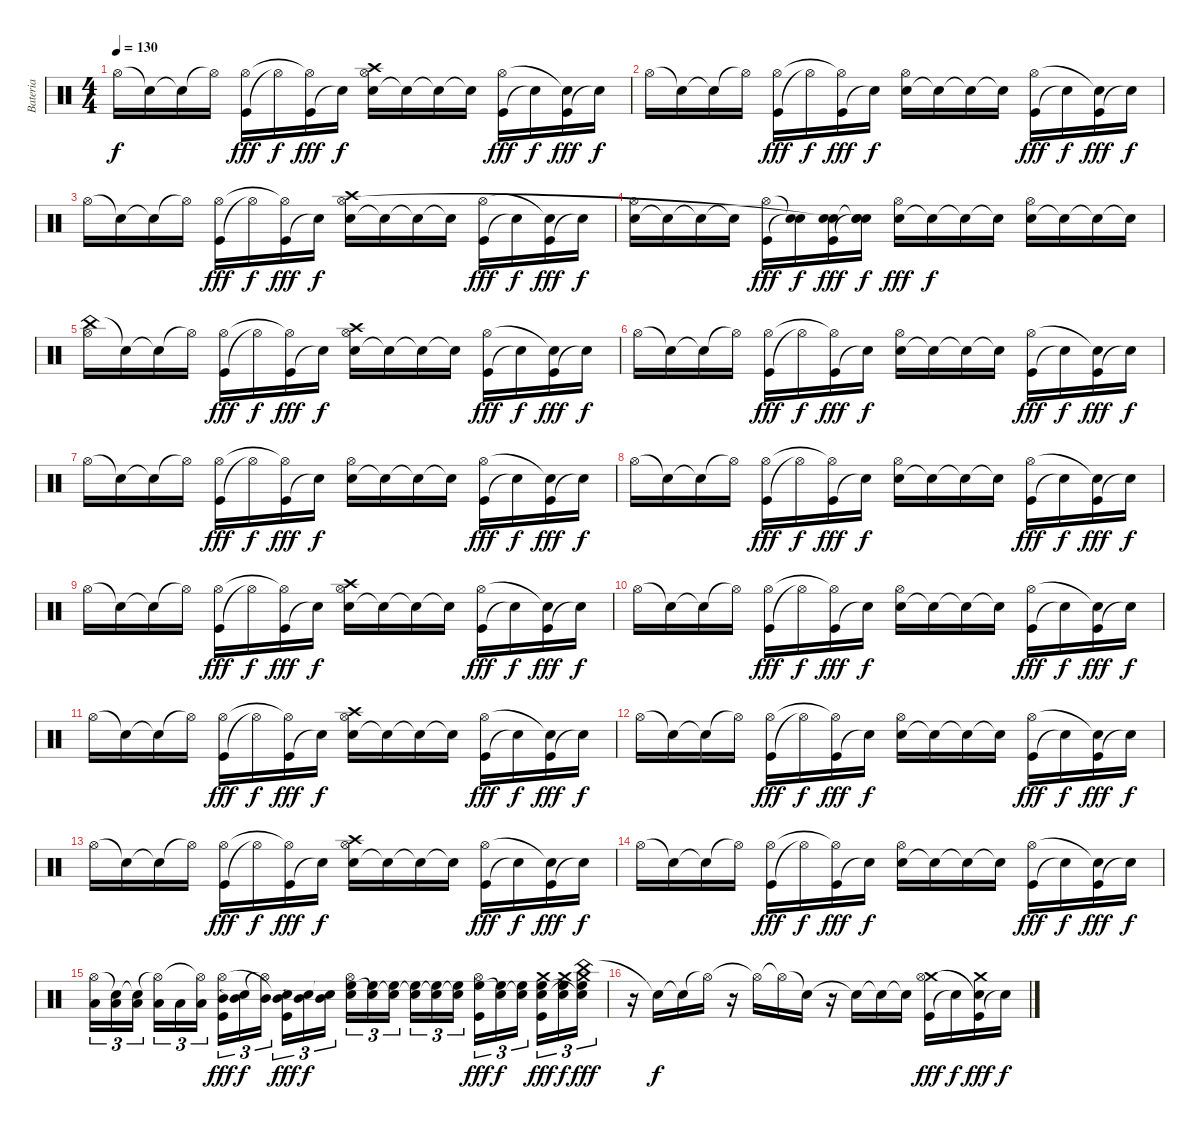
\track ("Bateria" "Bateria") {instrument percussion}
\staff {score}
\articulation defaults
\ts (4 4)
\tempo 130
\clef neutral
\ks c "Hi-Hat (open)".16{dy f} "Snare (hit)"{t}.16 "Snare (hit)"{t}.16 "Hi-Hat (open)"{t}.16
("Kick (hit)" "Hi-Hat (open)").16{dy fff} "Hi-Hat (open)"{t}.16{dy f} ("Kick (hit)" "Hi-Hat (open)"{t}).16{dy fff} "Snare (hit)"{t}.16{dy f} ("Electric Snare (hit)" "Crash high (hit)" "Hi-Hat (open)").16 "Snare (hit)"{t}.16 "Snare (hit)"{t}.16 "Snare (hit)"{t}.16 ("Kick (hit)" "Hi-Hat (open)").16{dy fff} "Snare (hit)"{t}.16{dy f} ("Kick (hit)" "Snare (hit)"{t}).16{dy fff} "Snare (hit)"{t}.16{dy f} |
"Hi-Hat (open)".16 "Snare (hit)"{t}.16 "Snare (hit)"{t}.16 "Hi-Hat (open)"{t}.16 ("Kick (hit)" "Hi-Hat (open)").16{dy fff} "Hi-Hat (open)"{t}.16{dy f} ("Kick (hit)" "Hi-Hat (open)"{t}).16{dy fff} "Snare (hit)"{t}.16{dy f} ("Electric Snare (hit)" "Hi-Hat (open)").16 "Snare (hit)"{t}.16 "Snare (hit)"{t}.16 "Snare (hit)"{t}.16 ("Kick (hit)" "Hi-Hat (open)").16{dy fff} "Snare (hit)"{t}.16{dy f} ("Kick (hit)" "Snare (hit)"{t}).16{dy fff} "Snare (hit)"{t}.16{dy f} |
"Hi-Hat (open)".16 "Snare (hit)"{t}.16 "Snare (hit)"{t}.16 "Hi-Hat (open)"{t}.16 ("Kick (hit)" "Hi-Hat (open)").16{dy fff} "Hi-Hat (open)"{t}.16{dy f} ("Kick (hit)" "Hi-Hat (open)"{t}).16{dy fff} "Snare (hit)"{t}.16{dy f} ("Electric Snare (hit)" "Crash high (hit)" "Hi-Hat (open)").16 "Snare (hit)"{t}.16 "Snare (hit)"{t}.16 "Snare (hit)"{t}.16 ("Kick (hit)" "Hi-Hat (open)").16{dy fff} "Snare (hit)"{t}.16{dy f} ("Kick (hit)" "Snare (hit)"{t}).16{dy fff} "Snare (hit)"{t}.16{dy f} |
("Electric Snare (hit)" "Hi-Hat (open)").16 "Snare (hit)"{t}.16 "Snare (hit)"{t}.16 "Snare (hit)"{t}.16 ("Kick (hit)" "Hi-Hat (open)").16{dy fff} ("Snare (hit)"{t} "Snare (hit)"{t}).16{dy f} ("Kick (hit)" "Electric Snare (hit)" "Snare (hit)"{t}).16{dy fff} ("Snare (hit)"{t} "Electric Snare (hit)" "Snare (hit)"{t}).16{dy f} ("Electric Snare (hit)" "Hi-Hat (open)").16{dy fff} "Snare (hit)"{t}.16{dy f} "Snare (hit)"{t}.16 "Snare (hit)"{t}.16 ("Electric Snare (hit)" "Hi-Hat (open)").16 "Snare (hit)"{t}.16 "Snare (hit)"{t}.16 "Snare (hit)"{t}.16 |
("China (hit)" "Hi-Hat (open)").16 "Snare (hit)"{t}.16 "Snare (hit)"{t}.16 "Hi-Hat (open)"{t}.16 ("Kick (hit)" "Hi-Hat (open)").16{dy fff} "Hi-Hat (open)"{t}.16{dy f} ("Kick (hit)" "Hi-Hat (open)"{t}).16{dy fff} "Snare (hit)"{t}.16{dy f} ("Electric Snare (hit)" "Crash high (hit)" "Hi-Hat (open)").16 "Snare (hit)"{t}.16 "Snare (hit)"{t}.16 "Snare (hit)"{t}.16 ("Kick (hit)" "Hi-Hat (open)").16{dy fff} "Snare (hit)"{t}.16{dy f} ("Kick (hit)" "Snare (hit)"{t}).16{dy fff} "Snare (hit)"{t}.16{dy f} |
"Hi-Hat (open)".16 "Snare (hit)"{t}.16 "Snare (hit)"{t}.16 "Hi-Hat (open)"{t}.16 ("Kick (hit)" "Hi-Hat (open)").16{dy fff} "Hi-Hat (open)"{t}.16{dy f} ("Kick (hit)" "Hi-Hat (open)"{t}).16{dy fff} "Snare (hit)"{t}.16{dy f} ("Electric Snare (hit)" "Hi-Hat (open)").16 "Snare (hit)"{t}.16 "Snare (hit)"{t}.16 "Snare (hit)"{t}.16 ("Kick (hit)" "Hi-Hat (open)").16{dy fff} "Snare (hit)"{t}.16{dy f} ("Kick (hit)" "Snare (hit)"{t}).16{dy fff} "Snare (hit)"{t}.16{dy f} |
"Hi-Hat (open)".16 "Snare (hit)"{t}.16 "Snare (hit)"{t}.16 "Hi-Hat (open)"{t}.16 ("Kick (hit)" "Hi-Hat (open)").16{dy fff} "Hi-Hat (open)"{t}.16{dy f} ("Kick (hit)" "Hi-Hat (open)"{t}).16{dy fff} "Snare (hit)"{t}.16{dy f} ("Electric Snare (hit)" "Hi-Hat (open)").16 "Snare (hit)"{t}.16 "Snare (hit)"{t}.16 "Snare (hit)"{t}.16 ("Kick (hit)" "Hi-Hat (open)").16{dy fff} "Snare (hit)"{t}.16{dy f} ("Kick (hit)" "Snare (hit)"{t}).16{dy fff} "Snare (hit)"{t}.16{dy f} |
"Hi-Hat (open)".16 "Snare (hit)"{t}.16 "Snare (hit)"{t}.16 "Hi-Hat (open)"{t}.16 ("Kick (hit)" "Hi-Hat (open)").16{dy fff} "Hi-Hat (open)"{t}.16{dy f} ("Kick (hit)" "Hi-Hat (open)"{t}).16{dy fff} "Snare (hit)"{t}.16{dy f} ("Electric Snare (hit)" "Hi-Hat (open)").16 "Snare (hit)"{t}.16 "Snare (hit)"{t}.16 "Snare (hit)"{t}.16 ("Kick (hit)" "Hi-Hat (open)").16{dy fff} "Snare (hit)"{t}.16{dy f} ("Kick (hit)" "Snare (hit)"{t}).16{dy fff} "Snare (hit)"{t}.16{dy f} |
"Hi-Hat (open)".16 "Snare (hit)"{t}.16 "Snare (hit)"{t}.16 "Hi-Hat (open)"{t}.16 ("Kick (hit)" "Hi-Hat (open)").16{dy fff} "Hi-Hat (open)"{t}.16{dy f} ("Kick (hit)" "Hi-Hat (open)"{t}).16{dy fff} "Snare (hit)"{t}.16{dy f} ("Electric Snare (hit)" "Crash high (hit)" "Hi-Hat (open)").16 "Snare (hit)"{t}.16 "Snare (hit)"{t}.16 "Snare (hit)"{t}.16 ("Kick (hit)" "Hi-Hat (open)").16{dy fff} "Snare (hit)"{t}.16{dy f} ("Kick (hit)" "Snare (hit)"{t}).16{dy fff} "Snare (hit)"{t}.16{dy f} |
"Hi-Hat (open)".16 "Snare (hit)"{t}.16 "Snare (hit)"{t}.16 "Hi-Hat (open)"{t}.16 ("Kick (hit)" "Hi-Hat (open)").16{dy fff} "Hi-Hat (open)"{t}.16{dy f} ("Kick (hit)" "Hi-Hat (open)"{t}).16{dy fff} "Snare (hit)"{t}.16{dy f} ("Electric Snare (hit)" "Hi-Hat (open)").16 "Snare (hit)"{t}.16 "Snare (hit)"{t}.16 "Snare (hit)"{t}.16 ("Kick (hit)" "Hi-Hat (open)").16{dy fff} "Snare (hit)"{t}.16{dy f} ("Kick (hit)" "Snare (hit)"{t}).16{dy fff} "Snare (hit)"{t}.16{dy f} |
"Hi-Hat (open)".16 "Snare (hit)"{t}.16 "Snare (hit)"{t}.16 "Hi-Hat (open)"{t}.16 ("Kick (hit)" "Hi-Hat (open)").16{dy fff} "Hi-Hat (open)"{t}.16{dy f} ("Kick (hit)" "Hi-Hat (open)"{t}).16{dy fff} "Snare (hit)"{t}.16{dy f} ("Electric Snare (hit)" "Crash high (hit)" "Hi-Hat (open)").16 "Snare (hit)"{t}.16 "Snare (hit)"{t}.16 "Snare (hit)"{t}.16 ("Kick (hit)" "Hi-Hat (open)").16{dy fff} "Snare (hit)"{t}.16{dy f} ("Kick (hit)" "Snare (hit)"{t}).16{dy fff} "Snare (hit)"{t}.16{dy f} |
"Hi-Hat (open)".16 "Snare (hit)"{t}.16 "Snare (hit)"{t}.16 "Hi-Hat (open)"{t}.16 ("Kick (hit)" "Hi-Hat (open)").16{dy fff} "Hi-Hat (open)"{t}.16{dy f} ("Kick (hit)" "Hi-Hat (open)"{t}).16{dy fff} "Snare (hit)"{t}.16{dy f} ("Electric Snare (hit)" "Hi-Hat (open)").16 "Snare (hit)"{t}.16 "Snare (hit)"{t}.16 "Snare (hit)"{t}.16 ("Kick (hit)" "Hi-Hat (open)").16{dy fff} "Snare (hit)"{t}.16{dy f} ("Kick (hit)" "Snare (hit)"{t}).16{dy fff} "Snare (hit)"{t}.16{dy f} |
"Hi-Hat (open)".16 "Snare (hit)"{t}.16 "Snare (hit)"{t}.16 "Hi-Hat (open)"{t}.16 ("Kick (hit)" "Hi-Hat (open)").16{dy fff} "Hi-Hat (open)"{t}.16{dy f} ("Kick (hit)" "Hi-Hat (open)"{t}).16{dy fff} "Snare (hit)"{t}.16{dy f} ("Electric Snare (hit)" "Crash high (hit)" "Hi-Hat (open)").16 "Snare (hit)"{t}.16 "Snare (hit)"{t}.16 "Snare (hit)"{t}.16 ("Kick (hit)" "Hi-Hat (open)").16{dy fff} "Snare (hit)"{t}.16{dy f} ("Kick (hit)" "Snare (hit)"{t}).16{dy fff} "Snare (hit)"{t}.16{dy f} |
"Hi-Hat (open)".16 "Snare (hit)"{t}.16 "Snare (hit)"{t}.16 "Hi-Hat (open)"{t}.16 ("Kick (hit)" "Hi-Hat (open)").16{dy fff} "Hi-Hat (open)"{t}.16{dy f} ("Kick (hit)" "Hi-Hat (open)"{t}).16{dy fff} "Snare (hit)"{t}.16{dy f} ("Electric Snare (hit)" "Hi-Hat (open)").16 "Snare (hit)"{t}.16 "Snare (hit)"{t}.16 "Snare (hit)"{t}.16 ("Kick (hit)" "Hi-Hat (open)").16{dy fff} "Snare (hit)"{t}.16{dy f} ("Kick (hit)" "Snare (hit)"{t}).16{dy fff} "Snare (hit)"{t}.16{dy f} |
("Low Tom (hit)" "Hi-Hat (open)").16{tu (3 2)} ("Low Tom (hit)" "Snare (hit)"{t}).16{tu (3 2)} ("Low Tom (hit)" "Snare (hit)"{t}).16{tu (3 2)} ("Low Tom (hit)" "Hi-Hat (open)"{t}).16{tu (3 2)} "Low Tom (hit)".16{tu (3 2)} ("Low Tom (hit)" "Hi-Hat (open)"{t}).16{tu (3 2)} ("Kick (hit)" "Mid Tom (hit)" "Hi-Hat (open)").16{tu (3 2) dy fff} ("Mid Tom (hit)" "Snare (hit)"{t}).16{tu (3 2) dy f} ("Mid Tom (hit)" "Hi-Hat (open)"{t}).16{tu (3 2)} ("Kick (hit)" "Mid Tom (hit)" "Snare (hit)"{t}).16{tu (3 2) dy fff} ("Mid Tom (hit)" "Snare (hit)"{t}).16{tu (3 2) dy f} ("Mid Tom (hit)" "Snare (hit)"{t}).16{tu (3 2)} ("Electric Snare (hit)" "High Floor Tom (hit)" "Hi-Hat (open)").16{tu (3 2)} ("High Floor Tom (hit)" "Snare (hit)"{t}).16{tu (3 2)} ("High Floor Tom (hit)" "Snare (hit)"{t}).16{tu (3 2)} ("High Floor Tom (hit)" "Snare (hit)"{t}).16{tu (3 2)} ("High Floor Tom (hit)" "Snare (hit)"{t}).16{tu (3 2)} ("High Floor Tom (hit)" "Snare (hit)"{t}).16{tu (3 2)} ("Kick (hit)" "High Floor Tom (hit)" "Hi-Hat (open)").16{tu (3 2) dy fff} ("High Floor Tom (hit)" "Snare (hit)"{t}).16{tu (3 2) dy f} ("High Floor Tom (hit)" "Snare (hit)"{t}).16{tu (3 2)} ("Kick (hit)" "Crash medium (hit)" "High Floor Tom (hit)" "Snare (hit)").16{tu (3 2) dy fff} ("Crash medium (hit)" "High Floor Tom (hit)" "Snare (hit)"{t}).16{tu (3 2) dy f} ("China (hit)" "Crash medium (hit)" "High Floor Tom (hit)" "Snare (hit)"{t}).16{tu (3 2) dy fff} |
r.16 "Snare (hit)"{t}.16{dy f} "Snare (hit)"{t}.16 "Hi-Hat (open)"{t}.16 r.16 "Hi-Hat (open)"{t}.16 "Hi-Hat (open)"{t}.16 "Snare (hit)"{t}.16 r.16 "Snare (hit)"{t}.16 "Snare (hit)"{t}.16 "Snare (hit)"{t}.16 ("Kick (hit)" "Crash medium (hit)" "Hi-Hat (open)").16{dy fff} "Snare (hit)"{t}.16{dy f} ("Kick (hit)" "Crash medium (hit)" "Snare (hit)"{t}).16{dy fff} "Snare (hit)"{t}.16{dy f}
